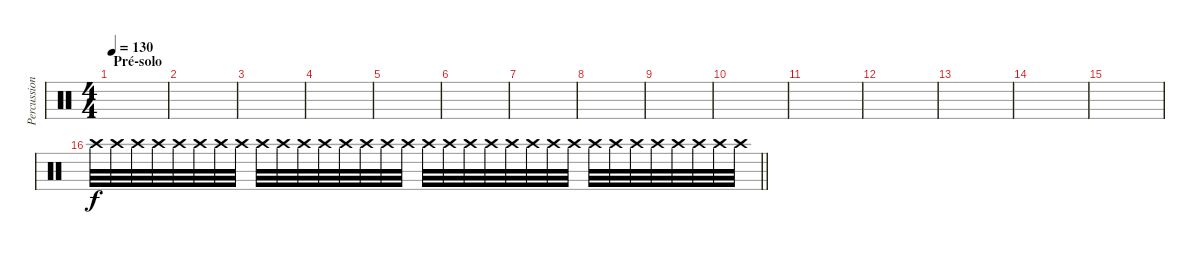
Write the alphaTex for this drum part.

\track ("Percussions" "Percussion") {instrument percussion}
\staff {score}
\articulation defaults
\ts (4 4)
\section ("" "Pré-solo")
\tempo 130
\clef neutral
\ks c
|
|
|
|
|
|
|
|
|
|
|
|
|
|
|
\barLineRight lightlight "Crash high (hit)".32{volume 16} "Crash high (hit)".32 "Crash high (hit)".32 "Crash high (hit)".32 "Crash high (hit)".32 "Crash high (hit)".32 "Crash high (hit)".32 "Crash high (hit)".32 "Crash high (hit)".32 "Crash high (hit)".32 "Crash high (hit)".32 "Crash high (hit)".32 "Crash high (hit)".32 "Crash high (hit)".32 "Crash high (hit)".32 "Crash high (hit)".32 "Crash high (hit)".32 "Crash high (hit)".32 "Crash high (hit)".32 "Crash high (hit)".32 "Crash high (hit)".32 "Crash high (hit)".32 "Crash high (hit)".32 "Crash high (hit)".32 "Crash high (hit)".32 "Crash high (hit)".32 "Crash high (hit)".32 "Crash high (hit)".32 "Crash high (hit)".32 "Crash high (hit)".32 "Crash high (hit)".32 "Crash high (hit)".32
